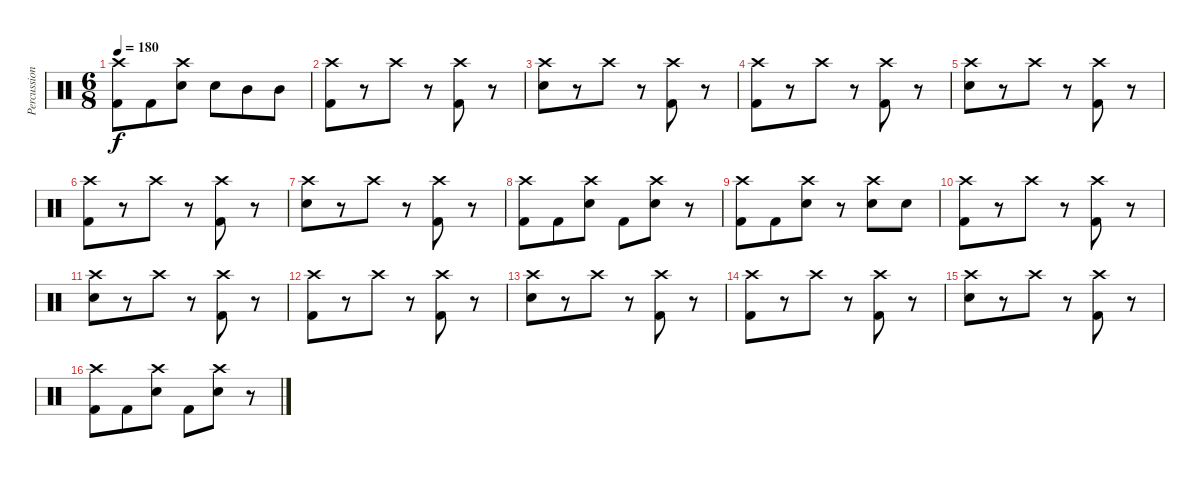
\track ("Percussion" "Percussion") {instrument percussion}
\staff {score}
\articulation defaults
\ts (6 8)
\tempo 180
\clef neutral
\ks c
("Crash high (hit)" "Kick (hit) 2").8{dy f} "Kick (hit) 2".8 ("Crash high (hit)" "Electric Snare (hit)").8 "Electric Snare (hit)".8 "Mid Tom (hit)".8 "Mid Tom (hit)".8 |
("Crash high (hit)" "Kick (hit) 2").8 r.8 "Crash high (hit)".8 r.8 ("Crash high (hit)" "Kick (hit) 2").8 r.8 |
("Crash high (hit)" "Electric Snare (hit)").8 r.8 "Crash high (hit)".8 r.8 ("Crash high (hit)" "Kick (hit) 2").8 r.8 |
("Crash high (hit)" "Kick (hit) 2").8 r.8 "Crash high (hit)".8 r.8 ("Crash high (hit)" "Kick (hit) 2").8 r.8 |
("Crash high (hit)" "Electric Snare (hit)").8 r.8 "Crash high (hit)".8 r.8 ("Crash high (hit)" "Kick (hit) 2").8 r.8 |
("Crash high (hit)" "Kick (hit) 2").8 r.8 "Crash high (hit)".8 r.8 ("Crash high (hit)" "Kick (hit) 2").8 r.8 |
("Crash high (hit)" "Electric Snare (hit)").8 r.8 "Crash high (hit)".8 r.8 ("Crash high (hit)" "Kick (hit) 2").8 r.8 |
("Crash high (hit)" "Kick (hit) 2").8 "Kick (hit) 2".8 ("Crash high (hit)" "Electric Snare (hit)").8 "Kick (hit) 2".8 ("Crash high (hit)" "Electric Snare (hit)").8 r.8 |
("Crash high (hit)" "Kick (hit) 2").8 "Kick (hit) 2".8 ("Crash high (hit)" "Electric Snare (hit)").8 r.8 ("Crash high (hit)" "Electric Snare (hit)").8 "Electric Snare (hit)".8 |
("Crash high (hit)" "Kick (hit) 2").8 r.8 "Crash high (hit)".8 r.8 ("Crash high (hit)" "Kick (hit) 2").8 r.8 |
("Crash high (hit)" "Electric Snare (hit)").8 r.8 "Crash high (hit)".8 r.8 ("Crash high (hit)" "Kick (hit) 2").8 r.8 |
("Crash high (hit)" "Kick (hit) 2").8 r.8 "Crash high (hit)".8 r.8 ("Crash high (hit)" "Kick (hit) 2").8 r.8 |
("Crash high (hit)" "Electric Snare (hit)").8 r.8 "Crash high (hit)".8 r.8 ("Crash high (hit)" "Kick (hit) 2").8 r.8 |
("Crash high (hit)" "Kick (hit) 2").8 r.8 "Crash high (hit)".8 r.8 ("Crash high (hit)" "Kick (hit) 2").8 r.8 |
("Crash high (hit)" "Electric Snare (hit)").8 r.8 "Crash high (hit)".8 r.8 ("Crash high (hit)" "Kick (hit) 2").8 r.8 |
("Crash high (hit)" "Kick (hit) 2").8 "Kick (hit) 2".8 ("Crash high (hit)" "Electric Snare (hit)").8 "Kick (hit) 2".8 ("Crash high (hit)" "Electric Snare (hit)").8 r.8
